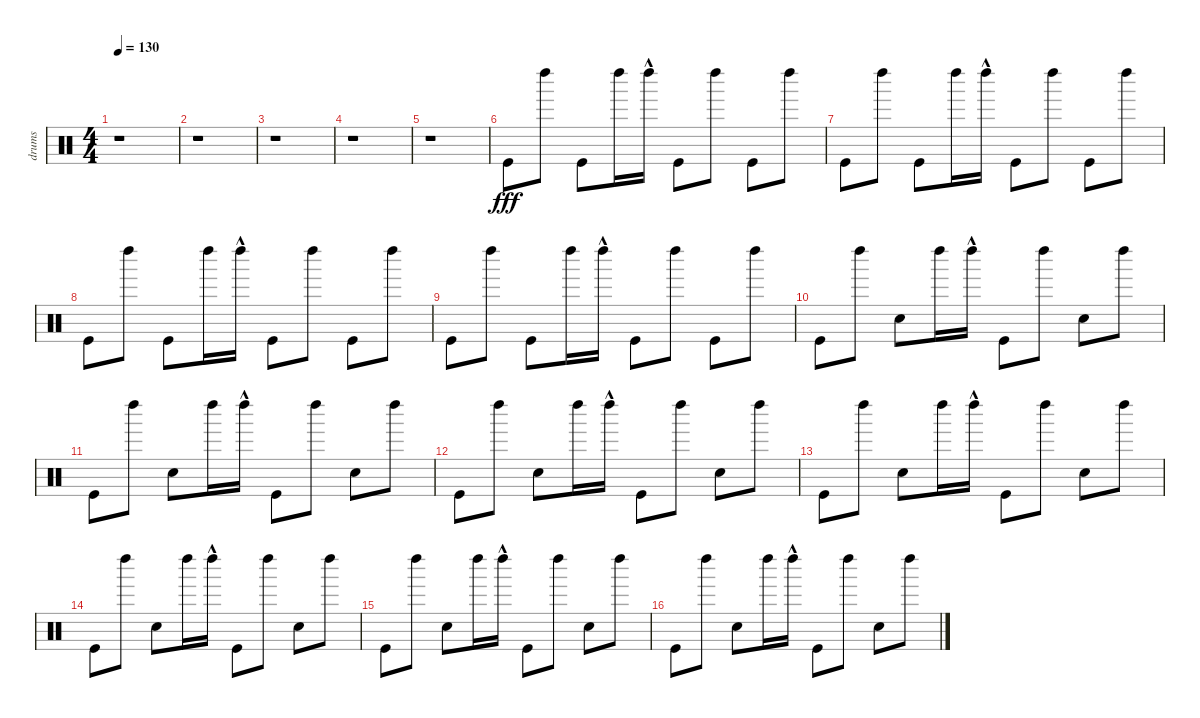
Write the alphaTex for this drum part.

\track ("drums" "drums") {instrument percussion}
\staff {score}
\articulation defaults
\ts (4 4)
\tempo 130
\clef neutral
\ks c
r.1{dy fff} |
r.1 |
r.1 |
r.1 |
r.1 |
"Kick (hit)".8 "Left Maraca (hit)".8 "Kick (hit)".8 "Left Maraca (hit)".16 "Left Maraca (hit)"{hac}.16 "Kick (hit)".8 "Left Maraca (hit)".8 "Kick (hit)".8 "Left Maraca (hit)".8 |
"Kick (hit)".8 "Left Maraca (hit)".8 "Kick (hit)".8 "Left Maraca (hit)".16 "Left Maraca (hit)"{hac}.16 "Kick (hit)".8 "Left Maraca (hit)".8 "Kick (hit)".8 "Left Maraca (hit)".8 |
"Kick (hit)".8 "Left Maraca (hit)".8 "Kick (hit)".8 "Left Maraca (hit)".16 "Left Maraca (hit)"{hac}.16 "Kick (hit)".8 "Left Maraca (hit)".8 "Kick (hit)".8 "Left Maraca (hit)".8 |
"Kick (hit)".8 "Left Maraca (hit)".8 "Kick (hit)".8 "Left Maraca (hit)".16 "Left Maraca (hit)"{hac}.16 "Kick (hit)".8 "Left Maraca (hit)".8 "Kick (hit)".8 "Left Maraca (hit)".8 |
"Kick (hit)".8 "Left Maraca (hit)".8 "Snare (hit) 2".8 "Left Maraca (hit)".16 "Left Maraca (hit)"{hac}.16 "Kick (hit)".8 "Left Maraca (hit)".8 "Snare (hit) 2".8 "Left Maraca (hit)".8 |
"Kick (hit)".8 "Left Maraca (hit)".8 "Snare (hit) 2".8 "Left Maraca (hit)".16 "Left Maraca (hit)"{hac}.16 "Kick (hit)".8 "Left Maraca (hit)".8 "Snare (hit) 2".8 "Left Maraca (hit)".8 |
"Kick (hit)".8 "Left Maraca (hit)".8 "Snare (hit) 2".8 "Left Maraca (hit)".16 "Left Maraca (hit)"{hac}.16 "Kick (hit)".8 "Left Maraca (hit)".8 "Snare (hit) 2".8 "Left Maraca (hit)".8 |
"Kick (hit)".8 "Left Maraca (hit)".8 "Snare (hit) 2".8 "Left Maraca (hit)".16 "Left Maraca (hit)"{hac}.16 "Kick (hit)".8 "Left Maraca (hit)".8 "Snare (hit) 2".8 "Left Maraca (hit)".8 |
"Kick (hit)".8 "Left Maraca (hit)".8 "Snare (hit) 2".8 "Left Maraca (hit)".16 "Left Maraca (hit)"{hac}.16 "Kick (hit)".8 "Left Maraca (hit)".8 "Snare (hit) 2".8 "Left Maraca (hit)".8 |
"Kick (hit)".8 "Left Maraca (hit)".8 "Snare (hit) 2".8 "Left Maraca (hit)".16 "Left Maraca (hit)"{hac}.16 "Kick (hit)".8 "Left Maraca (hit)".8 "Snare (hit) 2".8 "Left Maraca (hit)".8 |
"Kick (hit)".8 "Left Maraca (hit)".8 "Snare (hit) 2".8 "Left Maraca (hit)".16 "Left Maraca (hit)"{hac}.16 "Kick (hit)".8 "Left Maraca (hit)".8 "Snare (hit) 2".8 "Left Maraca (hit)".8
